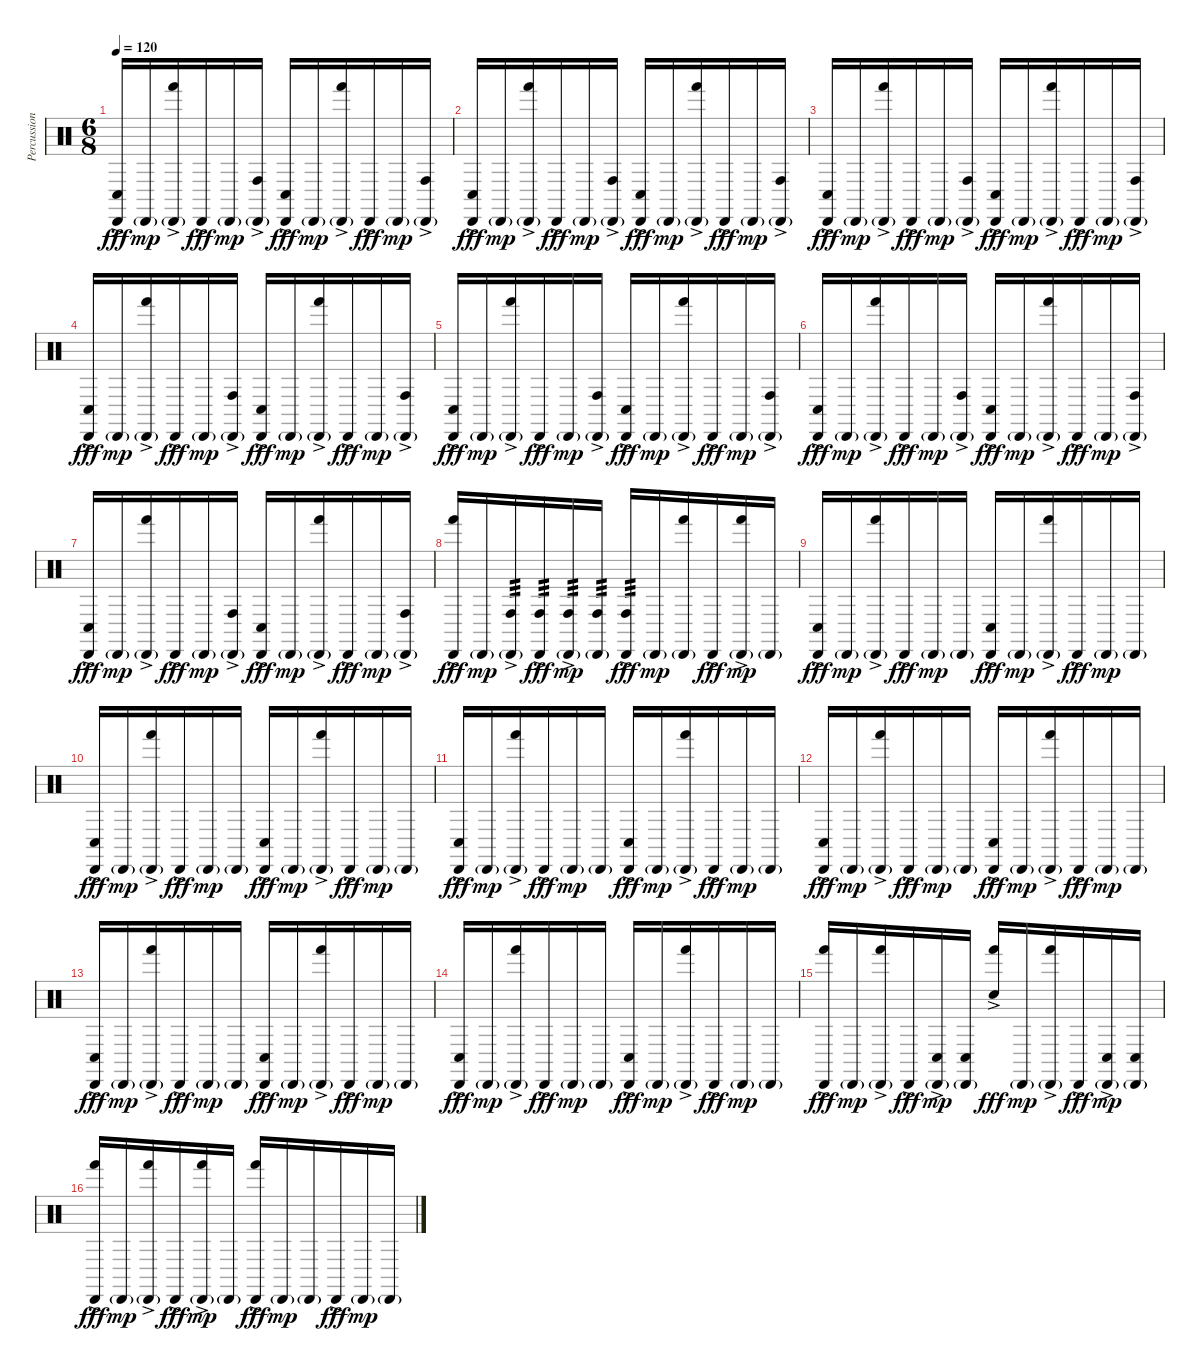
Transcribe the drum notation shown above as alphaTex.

\track ("Percussion" "Percussion") {instrument percussion}
\staff {score}
\articulation defaults
\ts (6 8)
\tempo 120
\clef neutral
\ks c
("Conga low (hit)"{ac} "Cabasa (hit)"{ac}).16{dy fff} "Cabasa (hit)"{g}.16{dy mp} ("Hand (hit)"{ac} "Cabasa (hit)"{g}).16 "Cabasa (hit)"{ac}.16{dy fff} "Cabasa (hit)"{g}.16{dy mp} ("Conga high (hit)"{ac} "Cabasa (hit)"{g}).16 ("Conga low (hit)"{ac} "Cabasa (hit)"{ac}).16{dy fff} "Cabasa (hit)"{g}.16{dy mp} ("Hand (hit)"{ac} "Cabasa (hit)"{g}).16 "Cabasa (hit)"{ac}.16{dy fff} "Cabasa (hit)"{g}.16{dy mp} ("Conga high (hit)"{ac} "Cabasa (hit)"{g}).16 |
("Conga low (hit)"{ac} "Cabasa (hit)"{ac}).16{dy fff} "Cabasa (hit)"{g}.16{dy mp} ("Hand (hit)"{ac} "Cabasa (hit)"{g}).16 "Cabasa (hit)"{ac}.16{dy fff} "Cabasa (hit)"{g}.16{dy mp} ("Conga high (hit)"{ac} "Cabasa (hit)"{g}).16 ("Conga low (hit)"{ac} "Cabasa (hit)"{ac}).16{dy fff} "Cabasa (hit)"{g}.16{dy mp} ("Hand (hit)"{ac} "Cabasa (hit)"{g}).16 "Cabasa (hit)"{ac}.16{dy fff} "Cabasa (hit)"{g}.16{dy mp} ("Conga high (hit)"{ac} "Cabasa (hit)"{g}).16 |
("Conga low (hit)"{ac} "Cabasa (hit)"{ac}).16{dy fff} "Cabasa (hit)"{g}.16{dy mp} ("Hand (hit)"{ac} "Cabasa (hit)"{g}).16 "Cabasa (hit)"{ac}.16{dy fff} "Cabasa (hit)"{g}.16{dy mp} ("Conga high (hit)"{ac} "Cabasa (hit)"{g}).16 ("Conga low (hit)"{ac} "Cabasa (hit)"{ac}).16{dy fff} "Cabasa (hit)"{g}.16{dy mp} ("Hand (hit)"{ac} "Cabasa (hit)"{g}).16 "Cabasa (hit)"{ac}.16{dy fff} "Cabasa (hit)"{g}.16{dy mp} ("Conga high (hit)"{ac} "Cabasa (hit)"{g}).16 |
("Conga low (hit)"{ac} "Cabasa (hit)"{ac}).16{dy fff} "Cabasa (hit)"{g}.16{dy mp} ("Hand (hit)"{ac} "Cabasa (hit)"{g}).16 "Cabasa (hit)"{ac}.16{dy fff} "Cabasa (hit)"{g}.16{dy mp} ("Conga high (hit)"{ac} "Cabasa (hit)"{g}).16 ("Conga low (hit)"{ac} "Cabasa (hit)"{ac}).16{dy fff} "Cabasa (hit)"{g}.16{dy mp} ("Hand (hit)"{ac} "Cabasa (hit)"{g}).16 "Cabasa (hit)"{ac}.16{dy fff} "Cabasa (hit)"{g}.16{dy mp} ("Conga high (hit)"{ac} "Cabasa (hit)"{g}).16 |
("Conga low (hit)"{ac} "Cabasa (hit)"{ac}).16{dy fff} "Cabasa (hit)"{g}.16{dy mp} ("Hand (hit)"{ac} "Cabasa (hit)"{g}).16 "Cabasa (hit)"{ac}.16{dy fff} "Cabasa (hit)"{g}.16{dy mp} ("Conga high (hit)"{ac} "Cabasa (hit)"{g}).16 ("Conga low (hit)"{ac} "Cabasa (hit)"{ac}).16{dy fff} "Cabasa (hit)"{g}.16{dy mp} ("Hand (hit)"{ac} "Cabasa (hit)"{g}).16 "Cabasa (hit)"{ac}.16{dy fff} "Cabasa (hit)"{g}.16{dy mp} ("Conga high (hit)"{ac} "Cabasa (hit)"{g}).16 |
("Conga low (hit)"{ac} "Cabasa (hit)"{ac}).16{dy fff} "Cabasa (hit)"{g}.16{dy mp} ("Hand (hit)"{ac} "Cabasa (hit)"{g}).16 "Cabasa (hit)"{ac}.16{dy fff} "Cabasa (hit)"{g}.16{dy mp} ("Conga high (hit)"{ac} "Cabasa (hit)"{g}).16 ("Conga low (hit)"{ac} "Cabasa (hit)"{ac}).16{dy fff} "Cabasa (hit)"{g}.16{dy mp} ("Hand (hit)"{ac} "Cabasa (hit)"{g}).16 "Cabasa (hit)"{ac}.16{dy fff} "Cabasa (hit)"{g}.16{dy mp} ("Conga high (hit)"{ac} "Cabasa (hit)"{g}).16 |
("Conga low (hit)"{ac} "Cabasa (hit)"{ac}).16{dy fff} "Cabasa (hit)"{g}.16{dy mp} ("Hand (hit)"{ac} "Cabasa (hit)"{g}).16 "Cabasa (hit)"{ac}.16{dy fff} "Cabasa (hit)"{g}.16{dy mp} ("Conga high (hit)"{ac} "Cabasa (hit)"{g}).16 ("Conga low (hit)"{ac} "Cabasa (hit)"{ac}).16{dy fff} "Cabasa (hit)"{g}.16{dy mp} ("Hand (hit)"{ac} "Cabasa (hit)"{g}).16 "Cabasa (hit)"{ac}.16{dy fff} "Cabasa (hit)"{g}.16{dy mp} ("Conga high (hit)"{ac} "Cabasa (hit)"{g}).16 |
("Hand (hit)"{ac} "Cabasa (hit)"{ac}).16{dy fff} "Cabasa (hit)"{g}.16{dy mp} ("Conga high (hit)"{ac} "Cabasa (hit)"{g}).16{tp 3} ("Conga high (hit)" "Cabasa (hit)"{ac}).16{tp 3 dy fff} ("Conga high (hit)"{ac} "Cabasa (hit)"{g}).16{tp 3 dy mp} ("Conga high (hit)" "Cabasa (hit)"{g}).16{tp 3} ("Conga high (hit)"{ac} "Cabasa (hit)"{ac}).16{tp 3 dy fff} "Cabasa (hit)"{g}.16{dy mp} ("Hand (hit)" "Cabasa (hit)"{g}).16 "Cabasa (hit)"{ac}.16{dy fff} ("Hand (hit)"{ac} "Cabasa (hit)"{g}).16{dy mp} "Cabasa (hit)"{g}.16 |
("Conga low (hit)"{ac} "Cabasa (hit)"{ac}).16{dy fff} "Cabasa (hit)"{g}.16{dy mp} ("Hand (hit)"{ac} "Cabasa (hit)"{g}).16 "Cabasa (hit)"{ac}.16{dy fff} "Cabasa (hit)"{g}.16{dy mp} "Cabasa (hit)"{g}.16 ("Conga low (hit)"{ac} "Cabasa (hit)"{ac}).16{dy fff} "Cabasa (hit)"{g}.16{dy mp} ("Hand (hit)"{ac} "Cabasa (hit)"{g}).16 "Cabasa (hit)"{ac}.16{dy fff} "Cabasa (hit)"{g}.16{dy mp} "Cabasa (hit)"{g}.16 |
("Conga low (hit)"{ac} "Cabasa (hit)"{ac}).16{dy fff} "Cabasa (hit)"{g}.16{dy mp} ("Hand (hit)"{ac} "Cabasa (hit)"{g}).16 "Cabasa (hit)"{ac}.16{dy fff} "Cabasa (hit)"{g}.16{dy mp} "Cabasa (hit)"{g}.16 ("Conga low (hit)"{ac} "Cabasa (hit)"{ac}).16{dy fff} "Cabasa (hit)"{g}.16{dy mp} ("Hand (hit)"{ac} "Cabasa (hit)"{g}).16 "Cabasa (hit)"{ac}.16{dy fff} "Cabasa (hit)"{g}.16{dy mp} "Cabasa (hit)"{g}.16 |
("Conga low (hit)"{ac} "Cabasa (hit)"{ac}).16{dy fff} "Cabasa (hit)"{g}.16{dy mp} ("Hand (hit)"{ac} "Cabasa (hit)"{g}).16 "Cabasa (hit)"{ac}.16{dy fff} "Cabasa (hit)"{g}.16{dy mp} "Cabasa (hit)"{g}.16 ("Conga low (hit)"{ac} "Cabasa (hit)"{ac}).16{dy fff} "Cabasa (hit)"{g}.16{dy mp} ("Hand (hit)"{ac} "Cabasa (hit)"{g}).16 "Cabasa (hit)"{ac}.16{dy fff} "Cabasa (hit)"{g}.16{dy mp} "Cabasa (hit)"{g}.16 |
("Conga low (hit)"{ac} "Cabasa (hit)"{ac}).16{dy fff} "Cabasa (hit)"{g}.16{dy mp} ("Hand (hit)"{ac} "Cabasa (hit)"{g}).16 "Cabasa (hit)"{ac}.16{dy fff} "Cabasa (hit)"{g}.16{dy mp} "Cabasa (hit)"{g}.16 ("Conga low (hit)"{ac} "Cabasa (hit)"{ac}).16{dy fff} "Cabasa (hit)"{g}.16{dy mp} ("Hand (hit)"{ac} "Cabasa (hit)"{g}).16 "Cabasa (hit)"{ac}.16{dy fff} "Cabasa (hit)"{g}.16{dy mp} "Cabasa (hit)"{g}.16 |
("Conga low (hit)"{ac} "Cabasa (hit)"{ac}).16{dy fff} "Cabasa (hit)"{g}.16{dy mp} ("Hand (hit)"{ac} "Cabasa (hit)"{g}).16 "Cabasa (hit)"{ac}.16{dy fff} "Cabasa (hit)"{g}.16{dy mp} "Cabasa (hit)"{g}.16 ("Conga low (hit)"{ac} "Cabasa (hit)"{ac}).16{dy fff} "Cabasa (hit)"{g}.16{dy mp} ("Hand (hit)"{ac} "Cabasa (hit)"{g}).16 "Cabasa (hit)"{ac}.16{dy fff} "Cabasa (hit)"{g}.16{dy mp} "Cabasa (hit)"{g}.16 |
("Conga low (hit)"{ac} "Cabasa (hit)"{ac}).16{dy fff} "Cabasa (hit)"{g}.16{dy mp} ("Hand (hit)"{ac} "Cabasa (hit)"{g}).16 "Cabasa (hit)"{ac}.16{dy fff} "Cabasa (hit)"{g}.16{dy mp} "Cabasa (hit)"{g}.16 ("Conga low (hit)"{ac} "Cabasa (hit)"{ac}).16{dy fff} "Cabasa (hit)"{g}.16{dy mp} ("Hand (hit)"{ac} "Cabasa (hit)"{g}).16 "Cabasa (hit)"{ac}.16{dy fff} "Cabasa (hit)"{g}.16{dy mp} "Cabasa (hit)"{g}.16 |
("Hand (hit)"{ac} "Cabasa (hit)"{ac}).16{dy fff} "Cabasa (hit)"{g}.16{dy mp} ("Hand (hit)"{ac} "Cabasa (hit)"{g}).16 "Cabasa (hit)"{ac}.16{dy fff} ("Conga low (hit)"{ac} "Cabasa (hit)"{g}).16{dy mp} ("Conga low (hit)" "Cabasa (hit)"{g}).16 ("Hand (hit)"{ac} "Snare (hit)"{ac}).16{dy fff} "Cabasa (hit)"{g}.16{dy mp} ("Hand (hit)"{ac} "Cabasa (hit)"{g}).16 "Cabasa (hit)"{ac}.16{dy fff} ("Conga low (hit)"{ac} "Cabasa (hit)"{g}).16{dy mp} ("Conga low (hit)" "Cabasa (hit)"{g}).16 |
("Hand (hit)"{ac} "Cabasa (hit)"{ac}).16{dy fff} "Cabasa (hit)"{g}.16{dy mp} ("Hand (hit)"{ac} "Cabasa (hit)"{g}).16 "Cabasa (hit)"{ac}.16{dy fff} ("Hand (hit)"{ac} "Cabasa (hit)"{g}).16{dy mp} "Cabasa (hit)"{g}.16 ("Hand (hit)"{ac} "Cabasa (hit)"{ac}).16{dy fff} "Cabasa (hit)"{g}.16{dy mp} "Cabasa (hit)"{g}.16 "Cabasa (hit)"{ac}.16{dy fff} "Cabasa (hit)"{g}.16{dy mp} "Cabasa (hit)"{g}.16
